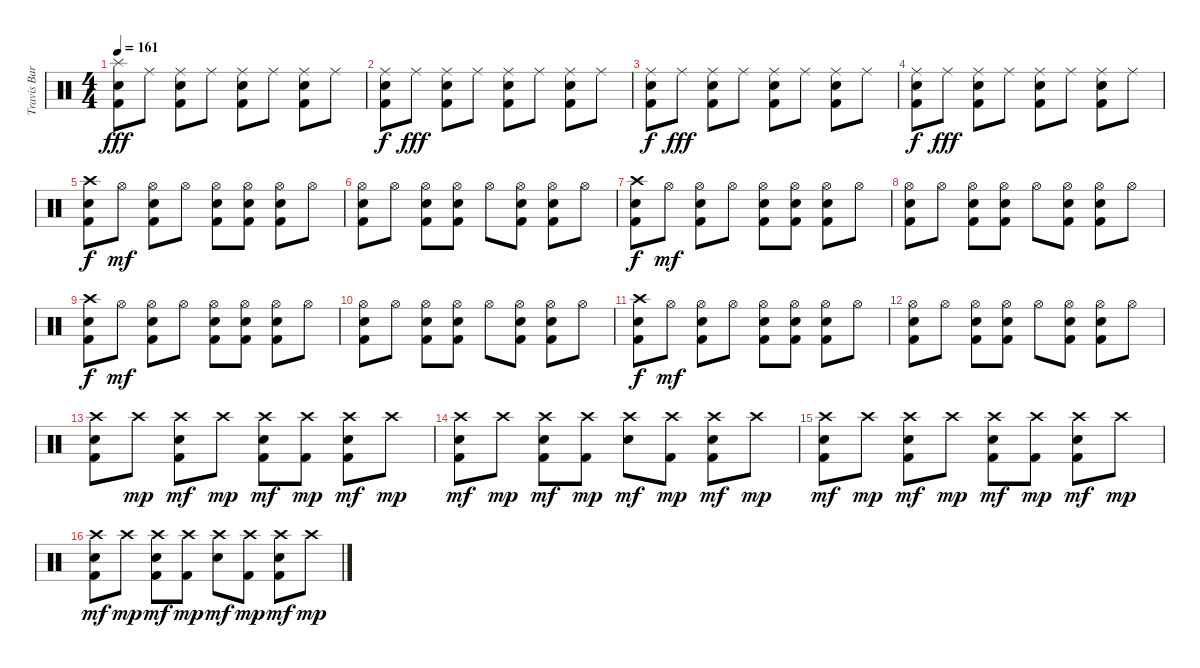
\track ("Travis Barker - Drums" "Travis Bar") {instrument percussion}
\staff {score}
\articulation defaults
\ts (4 4)
\tempo 161
\clef neutral
\ks c
("Splash (hit)" "Electric Snare (hit)" "Kick (hit) 2").8{dy fff} "Ride (middle)".8 ("Ride (middle)" "Electric Snare (hit)" "Kick (hit) 2").8 "Ride (middle)".8 ("Ride (middle)" "Electric Snare (hit)" "Kick (hit) 2").8 "Ride (middle)".8 ("Ride (middle)" "Electric Snare (hit)" "Kick (hit) 2").8 "Ride (middle)".8 |
("Ride (middle)" "Electric Snare (hit)" "Kick (hit) 2").8{dy f} "Ride (middle)".8{dy fff} ("Ride (middle)" "Electric Snare (hit)" "Kick (hit) 2").8 "Ride (middle)".8 ("Ride (middle)" "Electric Snare (hit)" "Kick (hit) 2").8 "Ride (middle)".8 ("Ride (middle)" "Electric Snare (hit)" "Kick (hit) 2").8 "Ride (middle)".8 |
("Ride (middle)" "Electric Snare (hit)" "Kick (hit) 2").8{dy f} "Ride (middle)".8{dy fff} ("Ride (middle)" "Electric Snare (hit)" "Kick (hit) 2").8 "Ride (middle)".8 ("Ride (middle)" "Electric Snare (hit)" "Kick (hit) 2").8 "Ride (middle)".8 ("Ride (middle)" "Electric Snare (hit)" "Kick (hit) 2").8 "Ride (middle)".8 |
("Ride (middle)" "Electric Snare (hit)" "Kick (hit) 2").8{dy f} "Ride (middle)".8{dy fff} ("Ride (middle)" "Electric Snare (hit)" "Kick (hit) 2").8 "Ride (middle)".8 ("Ride (middle)" "Electric Snare (hit)" "Kick (hit) 2").8 "Ride (middle)".8 ("Ride (middle)" "Electric Snare (hit)" "Kick (hit) 2").8 "Ride (middle)".8 |
("Crash high (hit)" "Electric Snare (hit)" "Kick (hit) 2").8{dy f} "Hi-Hat (open)".8{dy mf} ("Hi-Hat (open)" "Electric Snare (hit)" "Kick (hit) 2").8 "Hi-Hat (open)".8 ("Hi-Hat (open)" "Electric Snare (hit)" "Kick (hit) 2").8 ("Hi-Hat (open)" "Electric Snare (hit)" "Kick (hit) 2").8 ("Hi-Hat (open)" "Electric Snare (hit)" "Kick (hit) 2").8 "Hi-Hat (open)".8 |
("Hi-Hat (open)" "Electric Snare (hit)" "Kick (hit) 2").8 "Hi-Hat (open)".8 ("Hi-Hat (open)" "Electric Snare (hit)" "Kick (hit) 2").8 ("Hi-Hat (open)" "Electric Snare (hit)" "Kick (hit) 2").8 "Hi-Hat (open)".8 ("Hi-Hat (open)" "Electric Snare (hit)" "Kick (hit) 2").8 ("Hi-Hat (open)" "Electric Snare (hit)" "Kick (hit) 2").8 "Hi-Hat (open)".8 |
("Crash high (hit)" "Electric Snare (hit)" "Kick (hit) 2").8{dy f} "Hi-Hat (open)".8{dy mf} ("Hi-Hat (open)" "Electric Snare (hit)" "Kick (hit) 2").8 "Hi-Hat (open)".8 ("Hi-Hat (open)" "Electric Snare (hit)" "Kick (hit) 2").8 ("Hi-Hat (open)" "Electric Snare (hit)" "Kick (hit) 2").8 ("Hi-Hat (open)" "Electric Snare (hit)" "Kick (hit) 2").8 "Hi-Hat (open)".8 |
("Hi-Hat (open)" "Electric Snare (hit)" "Kick (hit) 2").8 "Hi-Hat (open)".8 ("Hi-Hat (open)" "Electric Snare (hit)" "Kick (hit) 2").8 ("Hi-Hat (open)" "Electric Snare (hit)" "Kick (hit) 2").8 "Hi-Hat (open)".8 ("Hi-Hat (open)" "Electric Snare (hit)" "Kick (hit) 2").8 ("Hi-Hat (open)" "Electric Snare (hit)" "Kick (hit) 2").8 "Hi-Hat (open)".8 |
("Crash high (hit)" "Electric Snare (hit)" "Kick (hit) 2").8{dy f} "Hi-Hat (open)".8{dy mf} ("Hi-Hat (open)" "Electric Snare (hit)" "Kick (hit) 2").8 "Hi-Hat (open)".8 ("Hi-Hat (open)" "Electric Snare (hit)" "Kick (hit) 2").8 ("Hi-Hat (open)" "Electric Snare (hit)" "Kick (hit) 2").8 ("Hi-Hat (open)" "Electric Snare (hit)" "Kick (hit) 2").8 "Hi-Hat (open)".8 |
("Hi-Hat (open)" "Electric Snare (hit)" "Kick (hit) 2").8 "Hi-Hat (open)".8 ("Hi-Hat (open)" "Electric Snare (hit)" "Kick (hit) 2").8 ("Hi-Hat (open)" "Electric Snare (hit)" "Kick (hit) 2").8 "Hi-Hat (open)".8 ("Hi-Hat (open)" "Electric Snare (hit)" "Kick (hit) 2").8 ("Hi-Hat (open)" "Electric Snare (hit)" "Kick (hit) 2").8 "Hi-Hat (open)".8 |
("Crash high (hit)" "Electric Snare (hit)" "Kick (hit) 2").8{dy f} "Hi-Hat (open)".8{dy mf} ("Hi-Hat (open)" "Electric Snare (hit)" "Kick (hit) 2").8 "Hi-Hat (open)".8 ("Hi-Hat (open)" "Electric Snare (hit)" "Kick (hit) 2").8 ("Hi-Hat (open)" "Electric Snare (hit)" "Kick (hit) 2").8 ("Hi-Hat (open)" "Electric Snare (hit)" "Kick (hit) 2").8 "Hi-Hat (open)".8 |
("Hi-Hat (open)" "Electric Snare (hit)" "Kick (hit) 2").8 "Hi-Hat (open)".8 ("Hi-Hat (open)" "Electric Snare (hit)" "Kick (hit) 2").8 ("Hi-Hat (open)" "Electric Snare (hit)" "Kick (hit) 2").8 "Hi-Hat (open)".8 ("Hi-Hat (open)" "Electric Snare (hit)" "Kick (hit) 2").8 ("Hi-Hat (open)" "Electric Snare (hit)" "Kick (hit) 2").8 "Hi-Hat (open)".8 |
("Crash high (hit)" "Electric Snare (hit)" "Kick (hit) 2").8 "Crash high (hit)".8{dy mp} ("Crash high (hit)" "Electric Snare (hit)" "Kick (hit) 2").8{dy mf} "Crash high (hit)".8{dy mp} ("Crash high (hit)" "Electric Snare (hit)" "Kick (hit) 2").8{dy mf} ("Crash high (hit)" "Kick (hit) 2").8{dy mp} ("Crash high (hit)" "Electric Snare (hit)" "Kick (hit) 2").8{dy mf} "Crash high (hit)".8{dy mp} |
("Crash high (hit)" "Electric Snare (hit)" "Kick (hit) 2").8{dy mf} "Crash high (hit)".8{dy mp} ("Crash high (hit)" "Electric Snare (hit)" "Kick (hit) 2").8{dy mf} ("Crash high (hit)" "Kick (hit) 2").8{dy mp} ("Crash high (hit)" "Electric Snare (hit)").8{dy mf} ("Crash high (hit)" "Kick (hit) 2").8{dy mp} ("Crash high (hit)" "Electric Snare (hit)" "Kick (hit) 2").8{dy mf} "Crash high (hit)".8{dy mp} |
("Crash high (hit)" "Electric Snare (hit)" "Kick (hit) 2").8{dy mf} "Crash high (hit)".8{dy mp} ("Crash high (hit)" "Electric Snare (hit)" "Kick (hit) 2").8{dy mf} "Crash high (hit)".8{dy mp} ("Crash high (hit)" "Electric Snare (hit)" "Kick (hit) 2").8{dy mf} ("Crash high (hit)" "Kick (hit) 2").8{dy mp} ("Crash high (hit)" "Electric Snare (hit)" "Kick (hit) 2").8{dy mf} "Crash high (hit)".8{dy mp} |
("Crash high (hit)" "Electric Snare (hit)" "Kick (hit) 2").8{dy mf} "Crash high (hit)".8{dy mp} ("Crash high (hit)" "Electric Snare (hit)" "Kick (hit) 2").8{dy mf} ("Crash high (hit)" "Kick (hit) 2").8{dy mp} ("Crash high (hit)" "Electric Snare (hit)").8{dy mf} ("Crash high (hit)" "Kick (hit) 2").8{dy mp} ("Crash high (hit)" "Electric Snare (hit)" "Kick (hit) 2").8{dy mf} "Crash high (hit)".8{dy mp}
